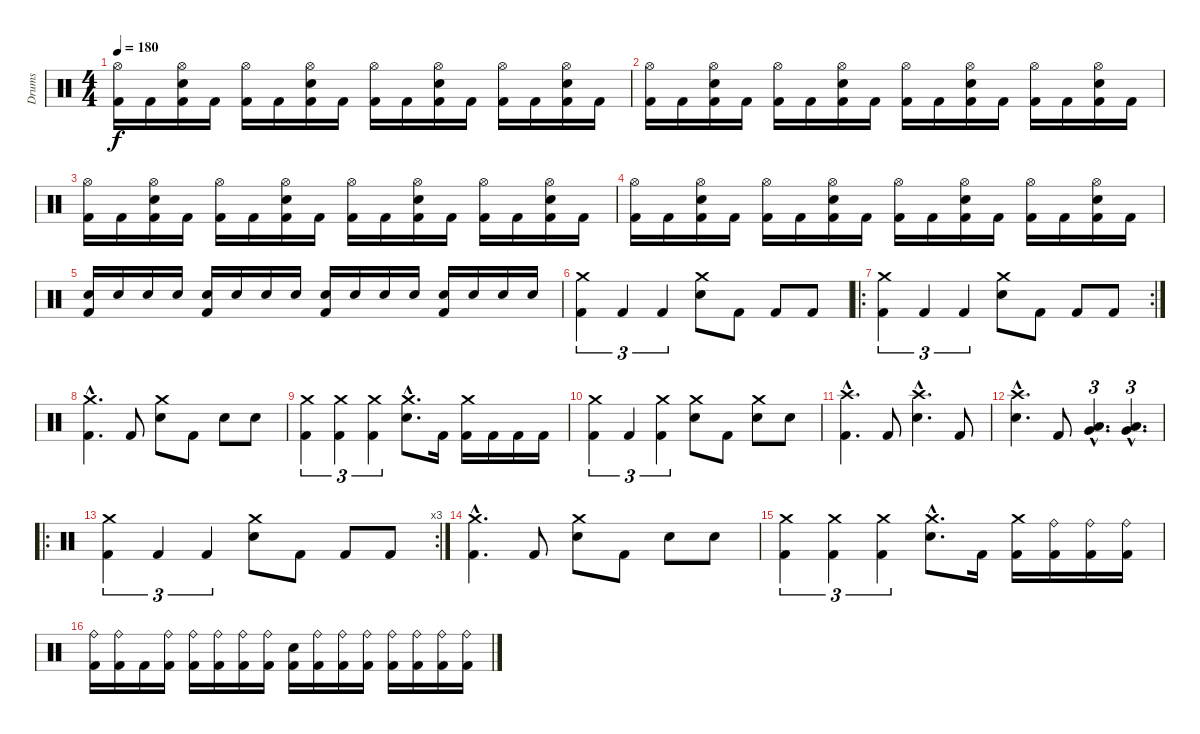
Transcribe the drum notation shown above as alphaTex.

\track ("Drums" "Drums") {instrument percussion}
\staff {score}
\articulation defaults
\ts (4 4)
\tempo 180
\clef neutral
\ks c
("Hi-Hat (open)" "Kick (hit) 2").16{dy f} "Kick (hit) 2".16 ("Hi-Hat (open)" "Electric Snare (hit)" "Kick (hit) 2").16 "Kick (hit) 2".16 ("Hi-Hat (open)" "Kick (hit) 2").16 "Kick (hit) 2".16 ("Hi-Hat (open)" "Electric Snare (hit)" "Kick (hit) 2").16 "Kick (hit) 2".16 ("Hi-Hat (open)" "Kick (hit) 2").16 "Kick (hit) 2".16 ("Hi-Hat (open)" "Electric Snare (hit)" "Kick (hit) 2").16 "Kick (hit) 2".16 ("Hi-Hat (open)" "Kick (hit) 2").16 "Kick (hit) 2".16 ("Hi-Hat (open)" "Electric Snare (hit)" "Kick (hit) 2").16 "Kick (hit) 2".16 |
("Hi-Hat (open)" "Kick (hit) 2").16 "Kick (hit) 2".16 ("Hi-Hat (open)" "Electric Snare (hit)" "Kick (hit) 2").16 "Kick (hit) 2".16 ("Hi-Hat (open)" "Kick (hit) 2").16 "Kick (hit) 2".16 ("Hi-Hat (open)" "Electric Snare (hit)" "Kick (hit) 2").16 "Kick (hit) 2".16 ("Hi-Hat (open)" "Kick (hit) 2").16 "Kick (hit) 2".16 ("Hi-Hat (open)" "Electric Snare (hit)" "Kick (hit) 2").16 "Kick (hit) 2".16 ("Hi-Hat (open)" "Kick (hit) 2").16 "Kick (hit) 2".16 ("Hi-Hat (open)" "Electric Snare (hit)" "Kick (hit) 2").16 "Kick (hit) 2".16 |
("Hi-Hat (open)" "Kick (hit) 2").16 "Kick (hit) 2".16 ("Hi-Hat (open)" "Electric Snare (hit)" "Kick (hit) 2").16 "Kick (hit) 2".16 ("Hi-Hat (open)" "Kick (hit) 2").16 "Kick (hit) 2".16 ("Hi-Hat (open)" "Electric Snare (hit)" "Kick (hit) 2").16 "Kick (hit) 2".16 ("Hi-Hat (open)" "Kick (hit) 2").16 "Kick (hit) 2".16 ("Hi-Hat (open)" "Electric Snare (hit)" "Kick (hit) 2").16 "Kick (hit) 2".16 ("Hi-Hat (open)" "Kick (hit) 2").16 "Kick (hit) 2".16 ("Hi-Hat (open)" "Electric Snare (hit)" "Kick (hit) 2").16 "Kick (hit) 2".16 |
("Hi-Hat (open)" "Kick (hit) 2").16 "Kick (hit) 2".16 ("Hi-Hat (open)" "Electric Snare (hit)" "Kick (hit) 2").16 "Kick (hit) 2".16 ("Hi-Hat (open)" "Kick (hit) 2").16 "Kick (hit) 2".16 ("Hi-Hat (open)" "Electric Snare (hit)" "Kick (hit) 2").16 "Kick (hit) 2".16 ("Hi-Hat (open)" "Kick (hit) 2").16 "Kick (hit) 2".16 ("Hi-Hat (open)" "Electric Snare (hit)" "Kick (hit) 2").16 "Kick (hit) 2".16 ("Hi-Hat (open)" "Kick (hit) 2").16 "Kick (hit) 2".16 ("Hi-Hat (open)" "Electric Snare (hit)" "Kick (hit) 2").16 "Kick (hit) 2".16 |
("Electric Snare (hit)" "Kick (hit) 2").16 "Electric Snare (hit)".16 "Electric Snare (hit)".16 "Electric Snare (hit)".16 ("Electric Snare (hit)" "Kick (hit) 2").16 "Electric Snare (hit)".16 "Electric Snare (hit)".16 "Electric Snare (hit)".16 ("Electric Snare (hit)" "Kick (hit) 2").16 "Electric Snare (hit)".16 "Electric Snare (hit)".16 "Electric Snare (hit)".16 ("Electric Snare (hit)" "Kick (hit) 2").16 "Electric Snare (hit)".16 "Electric Snare (hit)".16 "Electric Snare (hit)".16 |
("Crash medium (hit)" "Kick (hit) 2").4{tu (3 2)} "Kick (hit) 2".4{tu (3 2)} "Kick (hit) 2".4{tu (3 2)} ("Crash medium (hit)" "Electric Snare (hit)").8 "Kick (hit) 2".8 "Kick (hit) 2".8 "Kick (hit) 2".8 |
\ro
\rc 2
("Crash medium (hit)" "Kick (hit) 2").4{tu (3 2)} "Kick (hit) 2".4{tu (3 2)} "Kick (hit) 2".4{tu (3 2)} ("Crash medium (hit)" "Electric Snare (hit)").8 "Kick (hit) 2".8 "Kick (hit) 2".8 "Kick (hit) 2".8 |
("Crash medium (hit)"{hac} "Kick (hit) 2"{hac}).4{d} "Kick (hit) 2".8 ("Crash medium (hit)" "Electric Snare (hit)").8 "Kick (hit) 2".8 "Electric Snare (hit)".8 "Electric Snare (hit)".8 |
("Crash medium (hit)" "Kick (hit) 2").4{tu (3 2)} ("Crash medium (hit)" "Kick (hit) 2").4{tu (3 2)} ("Crash medium (hit)" "Kick (hit) 2").4{tu (3 2)} ("Crash medium (hit)"{hac} "Electric Snare (hit)"{hac}).8{d} "Kick (hit) 2".16 ("Crash medium (hit)" "Kick (hit) 2").16 "Kick (hit) 2".16 "Kick (hit) 2".16 "Kick (hit) 2".16 |
("Crash medium (hit)" "Kick (hit) 2").4{tu (3 2)} "Kick (hit) 2".4{tu (3 2)} ("Crash medium (hit)" "Kick (hit) 2").4{tu (3 2)} ("Crash medium (hit)" "Electric Snare (hit)").8 "Kick (hit) 2".8 ("Crash medium (hit)" "Electric Snare (hit)").8 "Electric Snare (hit)".8 |
("Crash high (hit)"{hac} "Kick (hit) 2"{hac}).4{d} "Kick (hit) 2".8 ("Crash high (hit)"{hac} "Electric Snare (hit)"{hac}).4{d} "Kick (hit) 2".8 |
("Crash high (hit)"{hac} "Electric Snare (hit)"{hac}).4{d} "Kick (hit) 2".8 ("Very Low Tom (hit)"{hac} "Low Floor Tom (hit)"{hac}).4{d tu (3 2)} ("Very Low Tom (hit)"{hac} "Low Floor Tom (hit)"{hac}).4{d tu (3 2)} |
\ro
\rc 3
("Crash medium (hit)" "Kick (hit) 2").4{tu (3 2)} "Kick (hit) 2".4{tu (3 2)} "Kick (hit) 2".4{tu (3 2)} ("Crash medium (hit)" "Electric Snare (hit)").8 "Kick (hit) 2".8 "Kick (hit) 2".8 "Kick (hit) 2".8 |
("Crash medium (hit)"{hac} "Kick (hit) 2"{hac}).4{d} "Kick (hit) 2".8 ("Crash medium (hit)" "Electric Snare (hit)").8 "Kick (hit) 2".8 "Electric Snare (hit)".8 "Electric Snare (hit)".8 |
("Crash medium (hit)" "Kick (hit) 2").4{tu (3 2)} ("Crash medium (hit)" "Kick (hit) 2").4{tu (3 2)} ("Crash medium (hit)" "Kick (hit) 2").4{tu (3 2)} ("Crash medium (hit)"{hac} "Electric Snare (hit)"{hac}).8{d} "Kick (hit) 2".16 ("Crash medium (hit)" "Kick (hit) 2").16 ("Ride (bell)" "Kick (hit) 2").16 ("Ride (bell)" "Kick (hit) 2").16 ("Ride (bell)" "Kick (hit) 2").16 |
("Ride (bell)" "Kick (hit) 2").16 ("Ride (bell)" "Kick (hit) 2").16 "Kick (hit) 2".16 ("Ride (bell)" "Kick (hit) 2").16 ("Ride (bell)" "Kick (hit) 2").16 ("Ride (bell)" "Kick (hit) 2").16 ("Ride (bell)" "Kick (hit) 2").16 ("Ride (bell)" "Kick (hit) 2").16 ("Electric Snare (hit)" "Kick (hit) 2").16 ("Ride (bell)" "Kick (hit) 2").16 ("Ride (bell)" "Kick (hit) 2").16 ("Ride (bell)" "Kick (hit) 2").16 ("Ride (bell)" "Kick (hit) 2").16 ("Ride (bell)" "Kick (hit) 2").16 ("Ride (bell)" "Kick (hit) 2").16 ("Ride (bell)" "Kick (hit) 2").16
